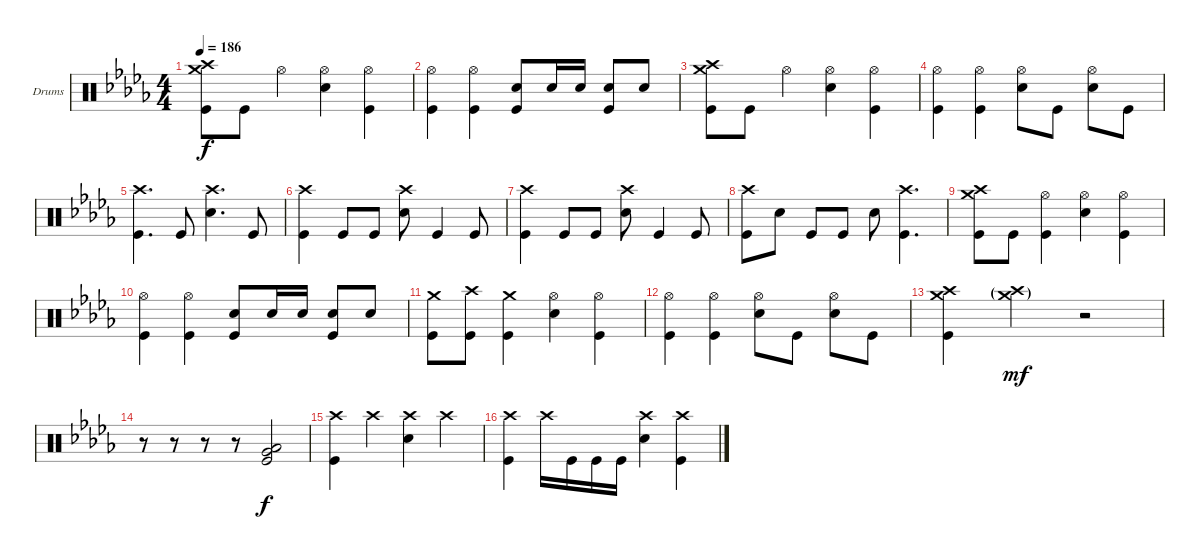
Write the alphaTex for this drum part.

\bracketExtendMode groupsimilarinstruments
\firstSystemTrackNameOrientation horizontal
\otherSystemsTrackNameOrientation horizontal
\track ("Drumkit" "Drums") {instrument percussion}
\staff {score}
\articulation defaults
\ts (4 4)
\tempo 186
\clef neutral
\ks db
("Crash medium (hit)" "Crash high (hit)" "Kick (hit)").8{dy f} "Kick (hit)".8 "Hi-Hat (open)".4 ("Hi-Hat (open)" "Snare (hit) 2").4 ("Hi-Hat (open)" "Kick (hit)").4 |
("Hi-Hat (open)" "Kick (hit)").4 ("Hi-Hat (open)" "Kick (hit)").4 ("Snare (hit) 2" "Kick (hit)").8 "Snare (hit) 2".16 "Snare (hit) 2".16 ("Snare (hit) 2" "Kick (hit)").8 "Snare (hit) 2".8 |
("Crash medium (hit)" "Crash high (hit)" "Kick (hit)").8 "Kick (hit)".8 "Hi-Hat (open)".4 ("Hi-Hat (open)" "Snare (hit) 2").4 ("Hi-Hat (open)" "Kick (hit)").4 |
("Hi-Hat (open)" "Kick (hit)").4 ("Hi-Hat (open)" "Kick (hit)").4 ("Hi-Hat (open)" "Snare (hit) 2").8 "Kick (hit)".8 ("Hi-Hat (open)" "Snare (hit) 2").8 "Kick (hit)".8 |
("Crash high (hit)" "Kick (hit)").4{d} "Kick (hit)".8 ("Crash high (hit)" "Snare (hit) 2").4{d} "Kick (hit)".8 |
("Crash high (hit)" "Kick (hit)").4 "Kick (hit)".8 "Kick (hit)".8 ("Crash high (hit)" "Snare (hit) 2").8 "Kick (hit)".4 "Kick (hit)".8 |
("Crash high (hit)" "Kick (hit)").4 "Kick (hit)".8 "Kick (hit)".8 ("Crash high (hit)" "Snare (hit) 2").8 "Kick (hit)".4 "Kick (hit)".8 |
("Crash high (hit)" "Kick (hit)").8 "Snare (hit) 2".8 "Kick (hit)".8 "Kick (hit)".8 "Snare (hit) 2".8 ("Crash high (hit)" "Kick (hit)").4{d} |
("Crash medium (hit)" "Crash high (hit)" "Kick (hit)").8 "Kick (hit)".8 ("Hi-Hat (open)" "Kick (hit)").4 ("Hi-Hat (open)" "Snare (hit) 2").4 ("Hi-Hat (open)" "Kick (hit)").4 |
("Hi-Hat (open)" "Kick (hit)").4 ("Hi-Hat (open)" "Kick (hit)").4 ("Snare (hit) 2" "Kick (hit)").8 "Snare (hit) 2".16 "Snare (hit) 2".16 ("Snare (hit) 2" "Kick (hit)").8 "Snare (hit) 2".8 |
("Crash medium (hit)" "Kick (hit)").8 ("Crash high (hit)" "Kick (hit)").8 ("Crash medium (hit)" "Kick (hit)").4 ("Hi-Hat (open)" "Snare (hit) 2").4 ("Hi-Hat (open)" "Kick (hit)").4 |
("Hi-Hat (open)" "Kick (hit)").4 ("Hi-Hat (open)" "Kick (hit)").4 ("Hi-Hat (open)" "Snare (hit) 2").8 "Kick (hit)".8 ("Hi-Hat (open)" "Snare (hit) 2").8 "Kick (hit)".8 |
("Crash high (hit)" "Crash medium (hit)" "Kick (hit)").4 ("Crash high (hit)"{g} "Crash medium (hit)"{g}).4{dy mf} r.2 |
r.8 r.8 r.8 r.8 ("Low Tom (hit)" "Very Low Tom (hit)" "Kick (hit)").2{dy f} |
("Crash high (hit)" "Kick (hit)").4 "Crash high (hit)".4 ("Crash high (hit)" "Snare (hit) 2").4 "Crash high (hit)".4 |
("Crash high (hit)" "Kick (hit)").4 "Crash high (hit)".16 "Kick (hit)".16 "Kick (hit)".16 "Kick (hit)".16 ("Crash high (hit)" "Snare (hit) 2").4 ("Crash high (hit)" "Kick (hit)").4
